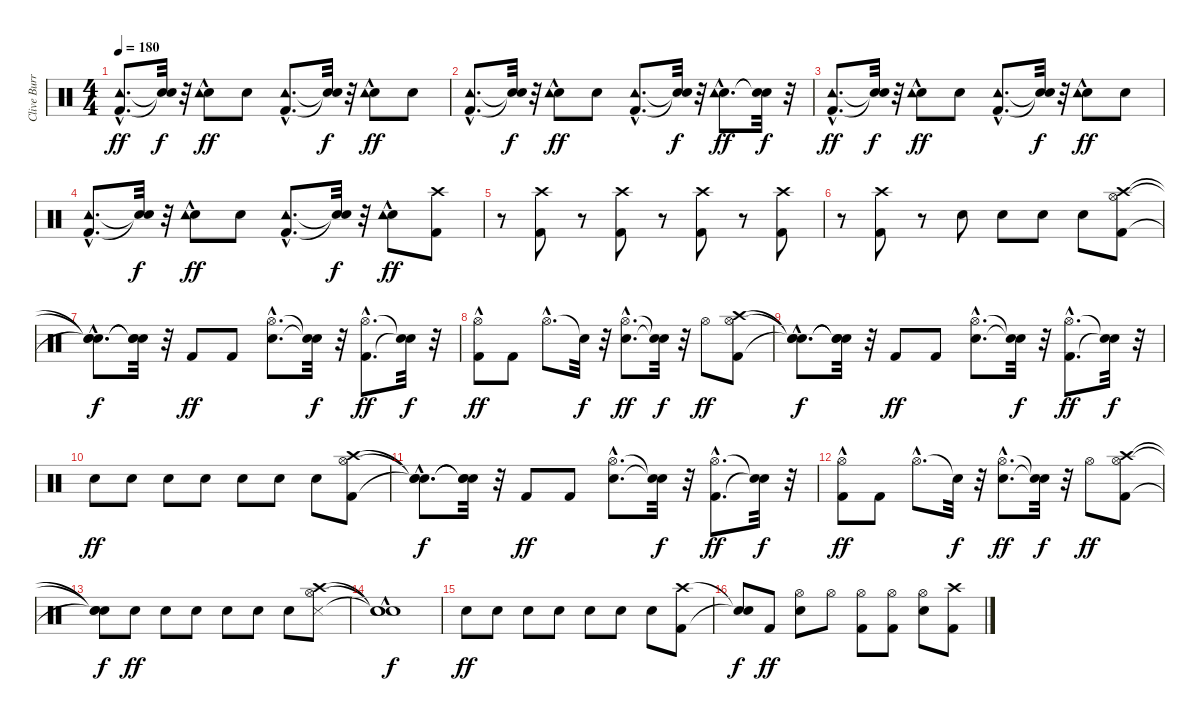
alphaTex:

\track ("Clive Burr" "Clive Burr") {instrument percussion}
\staff {score}
\articulation defaults
\ts (4 4)
\tempo 180
\clef neutral
\ks c
("Kick (hit) 2"{hac} "Tambourine (hit)"{hac}).8{d dy ff} ("Snare (hit)"{t} "Snare (hit)"{t}).32{dy f} r.32 ("Snare (hit) 2" "Tambourine (hit)"{hac}).8{dy ff} "Snare (hit) 2".8 ("Kick (hit) 2"{hac} "Tambourine (hit)"{hac}).8{d} ("Snare (hit)"{t} "Snare (hit)"{t}).32{dy f} r.32 ("Snare (hit) 2" "Tambourine (hit)"{hac}).8{dy ff} "Snare (hit) 2".8 |
("Kick (hit) 2"{hac} "Tambourine (hit)"{hac}).8{d} ("Snare (hit)"{t} "Snare (hit)"{t}).32{dy f} r.32 ("Snare (hit) 2" "Tambourine (hit)"{hac}).8{dy ff} "Snare (hit) 2".8 ("Kick (hit) 2"{hac} "Tambourine (hit)"{hac}).8{d} ("Snare (hit)"{t} "Snare (hit)"{t}).32{dy f} r.32 ("Snare (hit) 2"{hac} "Tambourine (hit)"{hac}).8{d dy ff} ("Snare (hit)"{t} "Snare (hit)"{t}).32{dy f} r.32 |
("Kick (hit) 2"{hac} "Tambourine (hit)"{hac}).8{d dy ff} ("Snare (hit)"{t} "Snare (hit)"{t}).32{dy f} r.32 ("Snare (hit) 2" "Tambourine (hit)"{hac}).8{dy ff} "Snare (hit) 2".8 ("Kick (hit) 2"{hac} "Tambourine (hit)"{hac}).8{d} ("Snare (hit)"{t} "Snare (hit)"{t}).32{dy f} r.32 ("Snare (hit) 2" "Tambourine (hit)"{hac}).8{dy ff} "Snare (hit) 2".8 |
("Kick (hit) 2"{hac} "Tambourine (hit)"{hac}).8{d} ("Snare (hit)"{t} "Snare (hit)"{t}).32{dy f} r.32 ("Snare (hit) 2" "Tambourine (hit)"{hac}).8{dy ff} "Snare (hit) 2".8 ("Kick (hit) 2"{hac} "Tambourine (hit)"{hac}).8{d} ("Snare (hit)"{t} "Snare (hit)"{t}).32{dy f} r.32 ("Snare (hit) 2" "Tambourine (hit)"{hac}).8{dy ff} ("Kick (hit) 2" "Crash high (hit)").8 |
r.8 ("Kick (hit) 2" "Crash high (hit)").8 r.8 ("Kick (hit) 2" "Crash high (hit)").8 r.8 ("Kick (hit) 2" "Crash high (hit)").8 r.8 ("Kick (hit) 2" "Crash high (hit)").8 |
r.8 ("Kick (hit) 2" "Crash high (hit)").8 r.8 "Snare (hit) 2".8 "Snare (hit) 2".8 "Snare (hit) 2".8 "Snare (hit) 2".8 ("Kick (hit) 2" "Hi-Hat (open)" "Crash high (hit)").8 |
("Snare (hit)"{hac t} "Snare (hit)"{hac t} "Snare (hit)"{hac t}).8{d dy f} ("Snare (hit)"{t} "Snare (hit)"{t} "Snare (hit)"{t}).32 r.32 "Kick (hit) 2".8{dy ff} "Kick (hit) 2".8 ("Snare (hit) 2"{hac} "Hi-Hat (open)"{hac}).8{d} ("Snare (hit)"{t} "Snare (hit)"{t}).32{dy f} r.32 ("Kick (hit) 2"{hac} "Hi-Hat (open)"{hac}).8{d dy ff} ("Snare (hit)"{t} "Snare (hit)"{t}).32{dy f} r.32 |
("Kick (hit) 2" "Hi-Hat (open)"{hac}).8{dy ff} "Kick (hit) 2".8 "Hi-Hat (open)"{hac}.8{d} "Snare (hit)"{t}.32{dy f} r.32 ("Snare (hit) 2"{hac} "Hi-Hat (open)"{hac}).8{d dy ff} ("Snare (hit)"{t} "Snare (hit)"{t}).32{dy f} r.32 "Hi-Hat (open)".8{dy ff} ("Kick (hit) 2" "Hi-Hat (open)" "Crash high (hit)").8 |
("Snare (hit)"{hac t} "Snare (hit)"{hac t} "Snare (hit)"{hac t}).8{d dy f} ("Snare (hit)"{t} "Snare (hit)"{t} "Snare (hit)"{t}).32 r.32 "Kick (hit) 2".8{dy ff} "Kick (hit) 2".8 ("Snare (hit) 2"{hac} "Hi-Hat (open)"{hac}).8{d} ("Snare (hit)"{t} "Snare (hit)"{t}).32{dy f} r.32 ("Kick (hit) 2"{hac} "Hi-Hat (open)"{hac}).8{d dy ff} ("Snare (hit)"{t} "Snare (hit)"{t}).32{dy f} r.32 |
"Snare (hit) 2".8{dy ff} "Snare (hit) 2".8 "Snare (hit) 2".8 "Snare (hit) 2".8 "Snare (hit) 2".8 "Snare (hit) 2".8 "Snare (hit) 2".8 ("Kick (hit) 2" "Hi-Hat (open)" "Crash high (hit)").8 |
("Snare (hit)"{hac t} "Snare (hit)"{hac t} "Snare (hit)"{hac t}).8{d dy f} ("Snare (hit)"{t} "Snare (hit)"{t} "Snare (hit)"{t}).32 r.32 "Kick (hit) 2".8{dy ff} "Kick (hit) 2".8 ("Snare (hit) 2"{hac} "Hi-Hat (open)"{hac}).8{d} ("Snare (hit)"{t} "Snare (hit)"{t}).32{dy f} r.32 ("Kick (hit) 2"{hac} "Hi-Hat (open)"{hac}).8{d dy ff} ("Snare (hit)"{t} "Snare (hit)"{t}).32{dy f} r.32 |
("Kick (hit) 2" "Hi-Hat (open)"{hac}).8{dy ff} "Kick (hit) 2".8 "Hi-Hat (open)"{hac}.8{d} "Snare (hit)"{t}.32{dy f} r.32 ("Snare (hit) 2"{hac} "Hi-Hat (open)"{hac}).8{d dy ff} ("Snare (hit)"{t} "Snare (hit)"{t}).32{dy f} r.32 "Hi-Hat (open)".8{dy ff} ("Kick (hit) 2" "Hi-Hat (open)" "Crash high (hit)").8 |
("Snare (hit)"{t} "Snare (hit)"{t} "Snare (hit)"{t}).8{dy f} "Snare (hit) 2".8{dy ff} "Snare (hit) 2".8 "Snare (hit) 2".8 "Snare (hit) 2".8 "Snare (hit) 2".8 "Snare (hit) 2".8 ("Snare (side stick) 3" "Hi-Hat (open)" "Crash high (hit)").8 |
("Snare (hit)"{t} "Snare (hit)"{hac t} "Snare (hit)"{hac t}).1{dy f} |
"Snare (hit) 2".8{dy ff} "Snare (hit) 2".8 "Snare (hit) 2".8 "Snare (hit) 2".8 "Snare (hit) 2".8 "Snare (hit) 2".8 "Snare (hit) 2".8 ("Kick (hit) 2" "Crash high (hit)").8 |
("Snare (hit)"{t} "Snare (hit)"{t}).8{dy f} "Kick (hit) 2".8{dy ff} ("Snare (hit) 2" "Hi-Hat (open)").8 "Hi-Hat (open)".8 ("Kick (hit) 2" "Hi-Hat (open)").8 ("Kick (hit) 2" "Hi-Hat (open)").8 ("Snare (hit) 2" "Hi-Hat (open)").8 ("Kick (hit) 2" "Crash high (hit)").8
